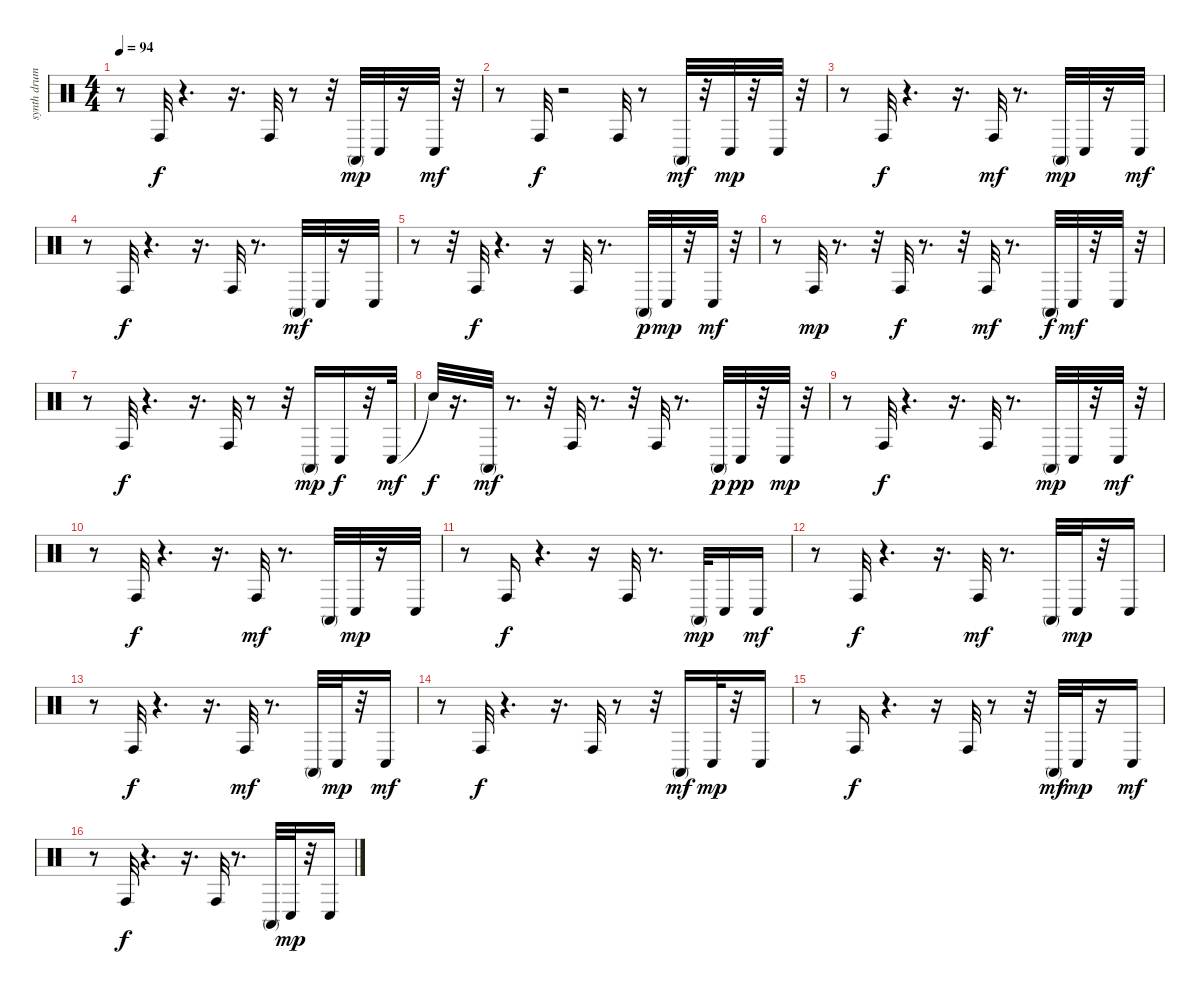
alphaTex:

\track ("synth drum" "synth drum") {instrument percussion}
\staff {score}
\articulation defaults
\ts (4 4)
\tempo 94
\clef neutral
\ks c
r.8{dy mf} "Conga high (hit)".32{dy f} r.4{d} r.16{d} "Conga high (hit)".32 r.8 r.32 "Conga high (mute)".32{dy mp} "Conga low (hit)".32 r.16 "Conga low (hit)".32{dy mf} r.32 |
r.8 "Conga high (hit)".32{dy f} r.2 "Conga high (hit)".32 r.8 "Conga high (mute)".32{dy mf} r.32 "Conga low (hit)".32{dy mp} r.32 "Conga low (hit)".32 r.32 |
r.8 "Conga high (hit)".32{dy f} r.4{d} r.16{d} "Conga high (hit)".32{dy mf} r.8{d} "Conga high (mute)".32{dy mp} "Conga low (hit)".32 r.16 "Conga low (hit)".32{dy mf} |
r.8 "Conga high (hit)".32{dy f} r.4{d} r.16{d} "Conga high (hit)".32 r.8{d} "Conga high (mute)".32{dy mf} "Conga low (hit)".32 r.16 "Conga low (hit)".32 |
r.8 r.32 "Conga high (hit)".32{dy f} r.4{d} r.16 "Conga high (hit)".32 r.8{d} "Conga high (mute)".32{dy p} "Conga low (hit)".32{dy mp} r.32 "Conga low (hit)".32{dy mf} r.32 |
r.8 "Conga high (hit)".32{dy mp} r.8{d} r.32 "Conga high (hit)".32{dy f} r.8{d} r.32 "Conga high (hit)".32{dy mf} r.8{d} "Conga high (mute)".32{dy f} "Conga low (hit)".32{dy mf} r.32 "Conga low (hit)".32 r.32 |
r.8 "Conga high (hit)".32{dy f} r.4{d} r.16{d} "Conga high (hit)".32 r.8 r.32 "Conga high (mute)".16{dy mp} "Conga low (hit)".16{dy f} r.32 "Conga low (hit)".32{dy mf} |
"Snare (hit)"{t}.32{dy f} r.16{d} "Conga high (mute)".32{dy mf} r.8{d} r.32 "Conga high (hit)".32 r.8{d} r.32 "Conga high (hit)".32 r.8{d} "Conga high (mute)".32{dy p} "Conga low (hit)".32{dy pp} r.32 "Conga low (hit)".32{dy mp} r.32 |
r.8 "Conga high (hit)".32{dy f} r.4{d} r.16{d} "Conga high (hit)".32 r.8{d} "Conga high (mute)".32{dy mp} "Conga low (hit)".32 r.32 "Conga low (hit)".32{dy mf} r.32 |
r.8 "Conga high (hit)".32{dy f} r.4{d} r.16{d} "Conga high (hit)".32{dy mf} r.8{d} "Conga high (mute)".32 "Conga low (hit)".32{dy mp} r.16 "Conga low (hit)".32 |
r.8 "Conga high (hit)".16{dy f} r.4{d} r.16 "Conga high (hit)".32 r.8{d} "Conga high (mute)".32{dy mp} "Conga low (hit)".16 "Conga low (hit)".16{dy mf} |
r.8 "Conga high (hit)".32{dy f} r.4{d} r.16{d} "Conga high (hit)".32{dy mf} r.8{d} "Conga high (mute)".32 "Conga low (hit)".32{dy mp} r.32 "Conga low (hit)".16 |
r.8 "Conga high (hit)".32{dy f} r.4{d} r.16{d} "Conga high (hit)".32{dy mf} r.8{d} "Conga high (mute)".32 "Conga low (hit)".32{dy mp} r.32 "Conga low (hit)".16{dy mf} |
r.8 "Conga high (hit)".32{dy f} r.4{d} r.16{d} "Conga high (hit)".32 r.8 r.32 "Conga high (mute)".16{dy mf} "Conga low (hit)".32{dy mp} r.32 "Conga low (hit)".16 |
r.8 "Conga high (hit)".16{dy f} r.4{d} r.16 "Conga high (hit)".32 r.8 r.32 "Conga high (mute)".32{dy mf} "Conga low (hit)".32{dy mp} r.16 "Conga low (hit)".16{dy mf} |
r.8 "Conga high (hit)".32{dy f} r.4{d} r.16{d} "Conga high (hit)".32 r.8{d} "Conga high (mute)".32 "Conga low (hit)".32{dy mp} r.32 "Conga low (hit)".16
